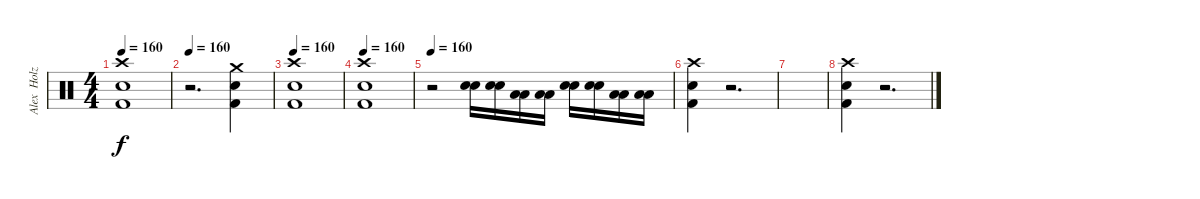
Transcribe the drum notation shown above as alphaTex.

\track ("Alex  Holzwarth (Drums)" "Alex  Holz") {instrument percussion}
\staff {score}
\articulation defaults
\ts (4 4)
\tempo 160
\clef neutral
\ks c
("Crash high (hit)" "Snare (hit) 2" "Kick (hit) 2").1{dy f} |
\tempo 160
r.2{d} ("Crash medium (hit)" "Snare (hit) 2" "Kick (hit) 2").4 |
\tempo 160
("Crash high (hit)" "Snare (hit) 2" "Kick (hit) 2").1 |
\tempo 160
("Crash high (hit)" "Snare (hit) 2" "Kick (hit) 2").1 |
\tempo 160
r.2 ("Snare (hit) 2" "Snare (hit) 2").16 ("Snare (hit) 2" "Snare (hit) 2").16 ("Low Tom (hit)" "Low Tom (hit)").16 ("Low Tom (hit)" "Low Tom (hit)").16 ("Snare (hit) 2" "Snare (hit) 2").16 ("Snare (hit) 2" "Snare (hit) 2").16 ("Low Tom (hit)" "Low Tom (hit)").16 ("Low Tom (hit)" "Low Tom (hit)").16 |
("Crash high (hit)" "Snare (hit) 2" "Kick (hit) 2").4 r.2{d} |
|
("Crash high (hit)" "Snare (hit) 2" "Kick (hit) 2").4 r.2{d}
